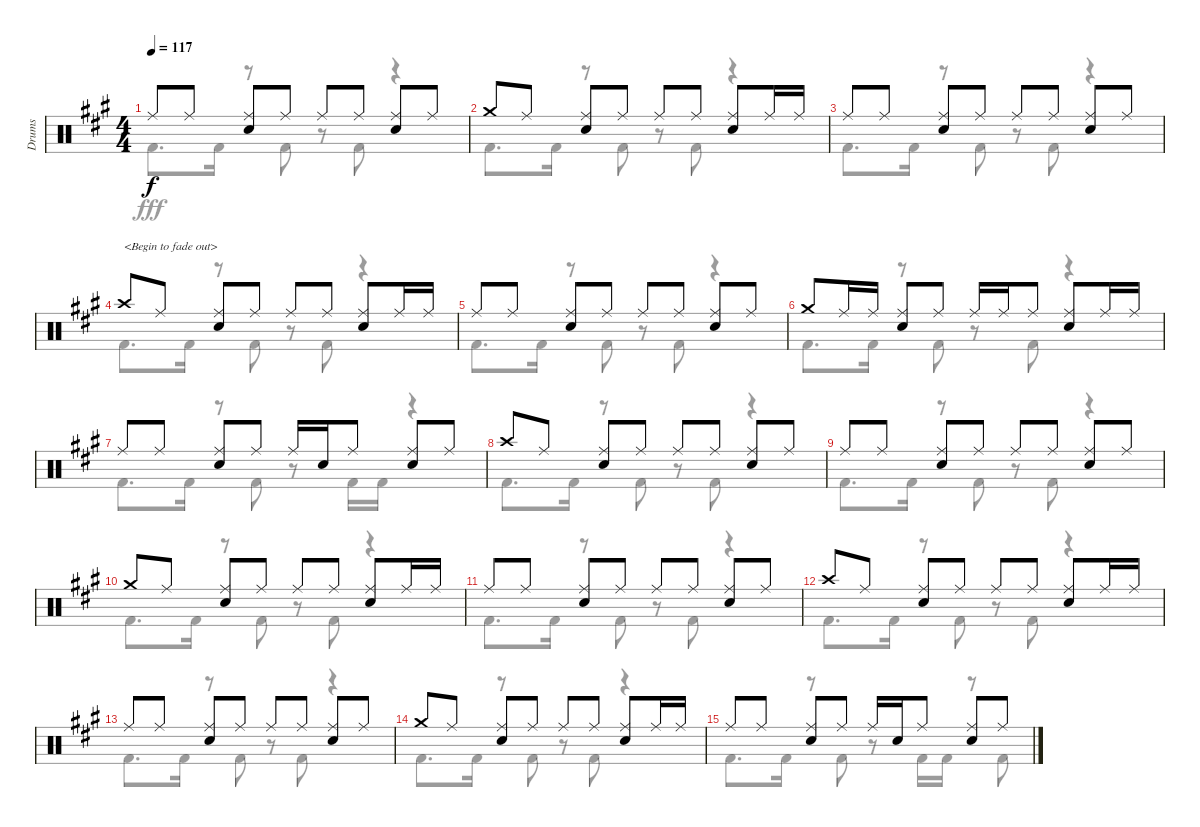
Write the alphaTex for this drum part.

\track ("Drums" "Drums") {instrument percussion}
\staff {score}
\articulation defaults
\voice
\ts (4 4)
\tempo 117
\clef neutral
\ks a "Ride (middle)".8{dy f} "Ride (middle)".8
("Ride (middle)" "Snare (hit) 2").8 "Ride (middle)".8 "Ride (middle)".8 "Ride (middle)".8 ("Ride (middle)" "Snare (hit) 2").8 "Ride (middle)".8 |
"Crash medium (hit)".8 "Ride (middle)".8 ("Ride (middle)" "Snare (hit) 2").8 "Ride (middle)".8 "Ride (middle)".8 "Ride (middle)".8 ("Ride (middle)" "Snare (hit) 2").8 "Ride (middle)".16 "Ride (middle)".16 |
"Ride (middle)".8 "Ride (middle)".8 ("Ride (middle)" "Snare (hit) 2").8 "Ride (middle)".8 "Ride (middle)".8 "Ride (middle)".8 ("Ride (middle)" "Snare (hit) 2").8 "Ride (middle)".8 |
"Crash high (hit)".8{txt "<Begin to fade out>"} "Ride (middle)".8 ("Ride (middle)" "Snare (hit) 2").8 "Ride (middle)".8 "Ride (middle)".8 "Ride (middle)".8 ("Ride (middle)" "Snare (hit) 2").8 "Ride (middle)".16 "Ride (middle)".16 |
"Ride (middle)".8 "Ride (middle)".8 ("Ride (middle)" "Snare (hit) 2").8 "Ride (middle)".8 "Ride (middle)".8 "Ride (middle)".8 ("Ride (middle)" "Snare (hit) 2").8 "Ride (middle)".8 |
"Crash medium (hit)".8 "Ride (middle)".16 "Ride (middle)".16 ("Ride (middle)" "Snare (hit) 2").8 "Ride (middle)".8 "Ride (middle)".16 "Ride (middle)".16 "Ride (middle)".8 ("Ride (middle)" "Snare (hit) 2").8 "Ride (middle)".16 "Ride (middle)".16 |
"Ride (middle)".8 "Ride (middle)".8 ("Ride (middle)" "Snare (hit) 2").8 "Ride (middle)".8 "Ride (middle)".16 "Snare (hit) 2".16 "Ride (middle)".8 ("Ride (middle)" "Snare (hit) 2").8 "Ride (middle)".8 |
"Crash high (hit)".8 "Ride (middle)".8 ("Ride (middle)" "Snare (hit) 2").8 "Ride (middle)".8 "Ride (middle)".8 "Ride (middle)".8 ("Ride (middle)" "Snare (hit) 2").8 "Ride (middle)".8 |
"Ride (middle)".8 "Ride (middle)".8 ("Ride (middle)" "Snare (hit) 2").8 "Ride (middle)".8 "Ride (middle)".8 "Ride (middle)".8 ("Ride (middle)" "Snare (hit) 2").8 "Ride (middle)".8 |
"Crash medium (hit)".8 "Ride (middle)".8 ("Ride (middle)" "Snare (hit) 2").8 "Ride (middle)".8 "Ride (middle)".8 "Ride (middle)".8 ("Ride (middle)" "Snare (hit) 2").8 "Ride (middle)".16 "Ride (middle)".16 |
"Ride (middle)".8 "Ride (middle)".8 ("Ride (middle)" "Snare (hit) 2").8 "Ride (middle)".8 "Ride (middle)".8 "Ride (middle)".8 ("Ride (middle)" "Snare (hit) 2").8 "Ride (middle)".8 |
"Crash high (hit)".8 "Ride (middle)".8 ("Ride (middle)" "Snare (hit) 2").8 "Ride (middle)".8 "Ride (middle)".8 "Ride (middle)".8 ("Ride (middle)" "Snare (hit) 2").8 "Ride (middle)".16 "Ride (middle)".16 |
"Ride (middle)".8 "Ride (middle)".8 ("Ride (middle)" "Snare (hit) 2").8 "Ride (middle)".8 "Ride (middle)".8 "Ride (middle)".8 ("Ride (middle)" "Snare (hit) 2").8 "Ride (middle)".8 |
"Crash medium (hit)".8 "Ride (middle)".8 ("Ride (middle)" "Snare (hit) 2").8 "Ride (middle)".8 "Ride (middle)".8 "Ride (middle)".8 ("Ride (middle)" "Snare (hit) 2").8 "Ride (middle)".16 "Ride (middle)".16 |
"Ride (middle)".8 "Ride (middle)".8 ("Ride (middle)" "Snare (hit) 2").8 "Ride (middle)".8 "Ride (middle)".16 "Snare (hit) 2".16 "Ride (middle)".8 ("Ride (middle)" "Snare (hit) 2").8 "Ride (middle)".8
\voice
\clef neutral
\ottava regular
\simile none
\ks a "Kick (hit) 2".8{d dy fff} "Kick (hit) 2".16
r.8 "Kick (hit) 2".8 r.8 "Kick (hit) 2".8 r.4 |
"Kick (hit) 2".8{d} "Kick (hit) 2".16 r.8 "Kick (hit) 2".8 r.8 "Kick (hit) 2".8 r.4 |
"Kick (hit) 2".8{d} "Kick (hit) 2".16 r.8 "Kick (hit) 2".8 r.8 "Kick (hit) 2".8 r.4 |
"Kick (hit) 2".8{d} "Kick (hit) 2".16 r.8 "Kick (hit) 2".8 r.8 "Kick (hit) 2".8 r.4 |
"Kick (hit) 2".8{d} "Kick (hit) 2".16 r.8 "Kick (hit) 2".8 r.8 "Kick (hit) 2".8 r.4 |
"Kick (hit) 2".8{d} "Kick (hit) 2".16 r.8 "Kick (hit) 2".8 r.8 "Kick (hit) 2".8 r.4 |
"Kick (hit) 2".8{d} "Kick (hit) 2".16 r.8 "Kick (hit) 2".8 r.8 "Kick (hit) 2".16 "Kick (hit) 2".16 r.4 |
"Kick (hit) 2".8{d} "Kick (hit) 2".16 r.8 "Kick (hit) 2".8 r.8 "Kick (hit) 2".8 r.4 |
"Kick (hit) 2".8{d} "Kick (hit) 2".16 r.8 "Kick (hit) 2".8 r.8 "Kick (hit) 2".8 r.4 |
"Kick (hit) 2".8{d} "Kick (hit) 2".16 r.8 "Kick (hit) 2".8 r.8 "Kick (hit) 2".8 r.4 |
"Kick (hit) 2".8{d} "Kick (hit) 2".16 r.8 "Kick (hit) 2".8 r.8 "Kick (hit) 2".8 r.4 |
"Kick (hit) 2".8{d} "Kick (hit) 2".16 r.8 "Kick (hit) 2".8 r.8 "Kick (hit) 2".8 r.4 |
"Kick (hit) 2".8{d} "Kick (hit) 2".16 r.8 "Kick (hit) 2".8 r.8 "Kick (hit) 2".8 r.4 |
"Kick (hit) 2".8{d} "Kick (hit) 2".16 r.8 "Kick (hit) 2".8 r.8 "Kick (hit) 2".8 r.4 |
"Kick (hit) 2".8{d} "Kick (hit) 2".16 r.8 "Kick (hit) 2".8 r.8 "Kick (hit) 2".16 "Kick (hit) 2".16 r.8 "Kick (hit) 2".8
